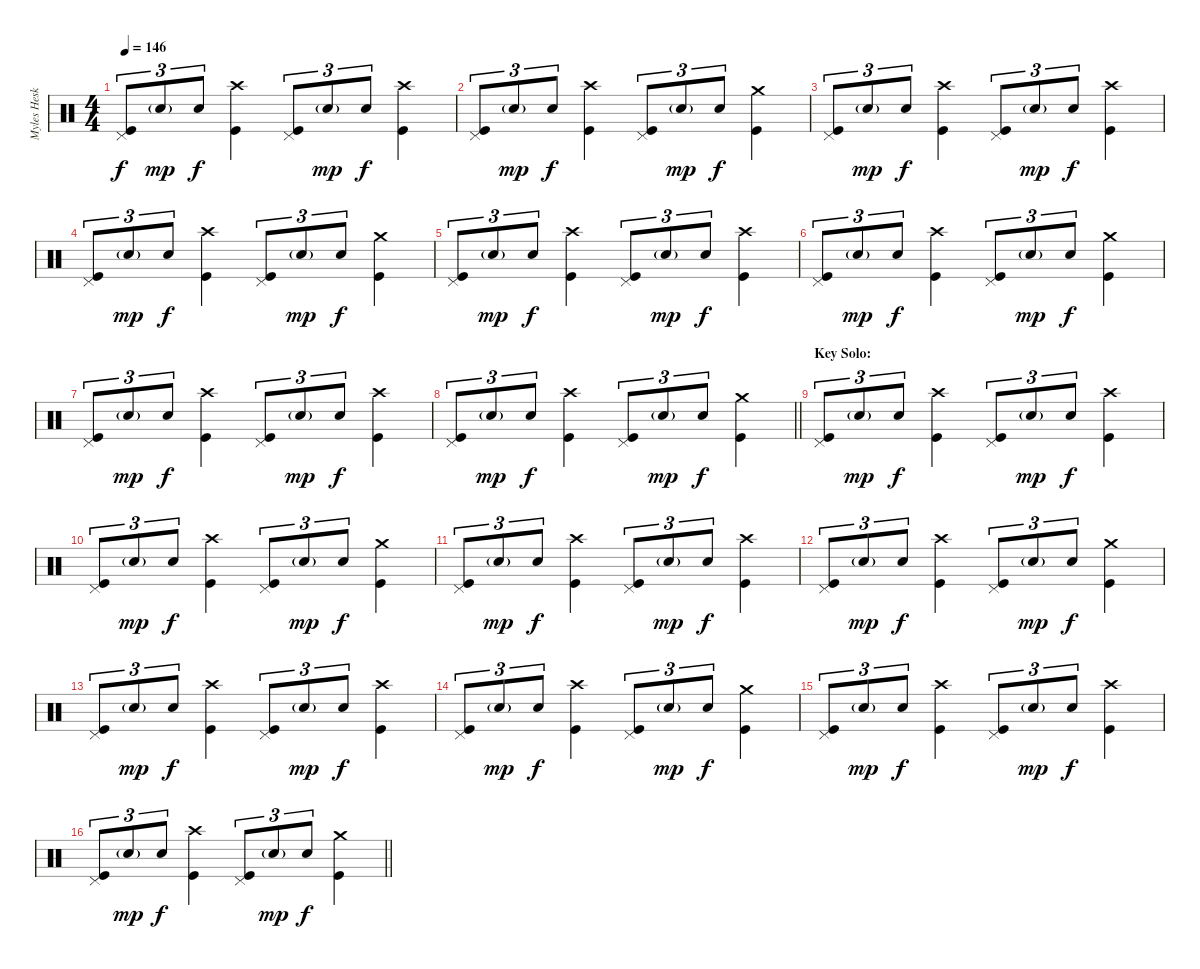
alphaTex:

\track ("Myles Heskett" "Myles Hesk") {instrument percussion}
\staff {score}
\articulation defaults
\ts (4 4)
\tempo 146
\clef neutral
\ks c
("Pedal Hi-Hat (hit)" "Kick (hit)").8{tu (3 2) dy f} "Electric Snare (hit)"{g}.8{tu (3 2) dy mp} "Electric Snare (hit)".8{tu (3 2) dy f} ("Crash high (hit)" "Kick (hit)").4 ("Pedal Hi-Hat (hit)" "Kick (hit)").8{tu (3 2)} "Electric Snare (hit)"{g}.8{tu (3 2) dy mp} "Electric Snare (hit)".8{tu (3 2) dy f} ("Crash high (hit)" "Kick (hit)").4 |
("Pedal Hi-Hat (hit)" "Kick (hit)").8{tu (3 2)} "Electric Snare (hit)"{g}.8{tu (3 2) dy mp} "Electric Snare (hit)".8{tu (3 2) dy f} ("Crash high (hit)" "Kick (hit)").4 ("Pedal Hi-Hat (hit)" "Kick (hit)").8{tu (3 2)} "Electric Snare (hit)"{g}.8{tu (3 2) dy mp} "Electric Snare (hit)".8{tu (3 2) dy f} ("Crash medium (hit)" "Kick (hit)").4 |
("Pedal Hi-Hat (hit)" "Kick (hit)").8{tu (3 2)} "Electric Snare (hit)"{g}.8{tu (3 2) dy mp} "Electric Snare (hit)".8{tu (3 2) dy f} ("Crash high (hit)" "Kick (hit)").4 ("Pedal Hi-Hat (hit)" "Kick (hit)").8{tu (3 2)} "Electric Snare (hit)"{g}.8{tu (3 2) dy mp} "Electric Snare (hit)".8{tu (3 2) dy f} ("Crash high (hit)" "Kick (hit)").4 |
("Pedal Hi-Hat (hit)" "Kick (hit)").8{tu (3 2)} "Electric Snare (hit)"{g}.8{tu (3 2) dy mp} "Electric Snare (hit)".8{tu (3 2) dy f} ("Crash high (hit)" "Kick (hit)").4 ("Pedal Hi-Hat (hit)" "Kick (hit)").8{tu (3 2)} "Electric Snare (hit)"{g}.8{tu (3 2) dy mp} "Electric Snare (hit)".8{tu (3 2) dy f} ("Crash medium (hit)" "Kick (hit)").4 |
("Pedal Hi-Hat (hit)" "Kick (hit)").8{tu (3 2)} "Electric Snare (hit)"{g}.8{tu (3 2) dy mp} "Electric Snare (hit)".8{tu (3 2) dy f} ("Crash high (hit)" "Kick (hit)").4 ("Pedal Hi-Hat (hit)" "Kick (hit)").8{tu (3 2)} "Electric Snare (hit)"{g}.8{tu (3 2) dy mp} "Electric Snare (hit)".8{tu (3 2) dy f} ("Crash high (hit)" "Kick (hit)").4 |
("Pedal Hi-Hat (hit)" "Kick (hit)").8{tu (3 2)} "Electric Snare (hit)"{g}.8{tu (3 2) dy mp} "Electric Snare (hit)".8{tu (3 2) dy f} ("Crash high (hit)" "Kick (hit)").4 ("Pedal Hi-Hat (hit)" "Kick (hit)").8{tu (3 2)} "Electric Snare (hit)"{g}.8{tu (3 2) dy mp} "Electric Snare (hit)".8{tu (3 2) dy f} ("Crash medium (hit)" "Kick (hit)").4 |
("Pedal Hi-Hat (hit)" "Kick (hit)").8{tu (3 2)} "Electric Snare (hit)"{g}.8{tu (3 2) dy mp} "Electric Snare (hit)".8{tu (3 2) dy f} ("Crash high (hit)" "Kick (hit)").4 ("Pedal Hi-Hat (hit)" "Kick (hit)").8{tu (3 2)} "Electric Snare (hit)"{g}.8{tu (3 2) dy mp} "Electric Snare (hit)".8{tu (3 2) dy f} ("Crash high (hit)" "Kick (hit)").4 |
\barLineRight lightlight
("Pedal Hi-Hat (hit)" "Kick (hit)").8{tu (3 2)} "Electric Snare (hit)"{g}.8{tu (3 2) dy mp} "Electric Snare (hit)".8{tu (3 2) dy f} ("Crash high (hit)" "Kick (hit)").4 ("Pedal Hi-Hat (hit)" "Kick (hit)").8{tu (3 2)} "Electric Snare (hit)"{g}.8{tu (3 2) dy mp} "Electric Snare (hit)".8{tu (3 2) dy f} ("Crash medium (hit)" "Kick (hit)").4 |
\section ("" "Key Solo:")
("Pedal Hi-Hat (hit)" "Kick (hit)").8{tu (3 2)} "Electric Snare (hit)"{g}.8{tu (3 2) dy mp} "Electric Snare (hit)".8{tu (3 2) dy f} ("Crash high (hit)" "Kick (hit)").4 ("Pedal Hi-Hat (hit)" "Kick (hit)").8{tu (3 2)} "Electric Snare (hit)"{g}.8{tu (3 2) dy mp} "Electric Snare (hit)".8{tu (3 2) dy f} ("Crash high (hit)" "Kick (hit)").4 |
("Pedal Hi-Hat (hit)" "Kick (hit)").8{tu (3 2)} "Electric Snare (hit)"{g}.8{tu (3 2) dy mp} "Electric Snare (hit)".8{tu (3 2) dy f} ("Crash high (hit)" "Kick (hit)").4 ("Pedal Hi-Hat (hit)" "Kick (hit)").8{tu (3 2)} "Electric Snare (hit)"{g}.8{tu (3 2) dy mp} "Electric Snare (hit)".8{tu (3 2) dy f} ("Crash medium (hit)" "Kick (hit)").4 |
("Pedal Hi-Hat (hit)" "Kick (hit)").8{tu (3 2)} "Electric Snare (hit)"{g}.8{tu (3 2) dy mp} "Electric Snare (hit)".8{tu (3 2) dy f} ("Crash high (hit)" "Kick (hit)").4 ("Pedal Hi-Hat (hit)" "Kick (hit)").8{tu (3 2)} "Electric Snare (hit)"{g}.8{tu (3 2) dy mp} "Electric Snare (hit)".8{tu (3 2) dy f} ("Crash high (hit)" "Kick (hit)").4 |
("Pedal Hi-Hat (hit)" "Kick (hit)").8{tu (3 2)} "Electric Snare (hit)"{g}.8{tu (3 2) dy mp} "Electric Snare (hit)".8{tu (3 2) dy f} ("Crash high (hit)" "Kick (hit)").4 ("Pedal Hi-Hat (hit)" "Kick (hit)").8{tu (3 2)} "Electric Snare (hit)"{g}.8{tu (3 2) dy mp} "Electric Snare (hit)".8{tu (3 2) dy f} ("Crash medium (hit)" "Kick (hit)").4 |
("Pedal Hi-Hat (hit)" "Kick (hit)").8{tu (3 2)} "Electric Snare (hit)"{g}.8{tu (3 2) dy mp} "Electric Snare (hit)".8{tu (3 2) dy f} ("Crash high (hit)" "Kick (hit)").4 ("Pedal Hi-Hat (hit)" "Kick (hit)").8{tu (3 2)} "Electric Snare (hit)"{g}.8{tu (3 2) dy mp} "Electric Snare (hit)".8{tu (3 2) dy f} ("Crash high (hit)" "Kick (hit)").4 |
("Pedal Hi-Hat (hit)" "Kick (hit)").8{tu (3 2)} "Electric Snare (hit)"{g}.8{tu (3 2) dy mp} "Electric Snare (hit)".8{tu (3 2) dy f} ("Crash high (hit)" "Kick (hit)").4 ("Pedal Hi-Hat (hit)" "Kick (hit)").8{tu (3 2)} "Electric Snare (hit)"{g}.8{tu (3 2) dy mp} "Electric Snare (hit)".8{tu (3 2) dy f} ("Crash medium (hit)" "Kick (hit)").4 |
("Pedal Hi-Hat (hit)" "Kick (hit)").8{tu (3 2)} "Electric Snare (hit)"{g}.8{tu (3 2) dy mp} "Electric Snare (hit)".8{tu (3 2) dy f} ("Crash high (hit)" "Kick (hit)").4 ("Pedal Hi-Hat (hit)" "Kick (hit)").8{tu (3 2)} "Electric Snare (hit)"{g}.8{tu (3 2) dy mp} "Electric Snare (hit)".8{tu (3 2) dy f} ("Crash high (hit)" "Kick (hit)").4 |
\barLineRight lightlight
("Pedal Hi-Hat (hit)" "Kick (hit)").8{tu (3 2)} "Electric Snare (hit)"{g}.8{tu (3 2) dy mp} "Electric Snare (hit)".8{tu (3 2) dy f} ("Crash high (hit)" "Kick (hit)").4 ("Pedal Hi-Hat (hit)" "Kick (hit)").8{tu (3 2)} "Electric Snare (hit)"{g}.8{tu (3 2) dy mp} "Electric Snare (hit)".8{tu (3 2) dy f} ("Crash medium (hit)" "Kick (hit)").4
